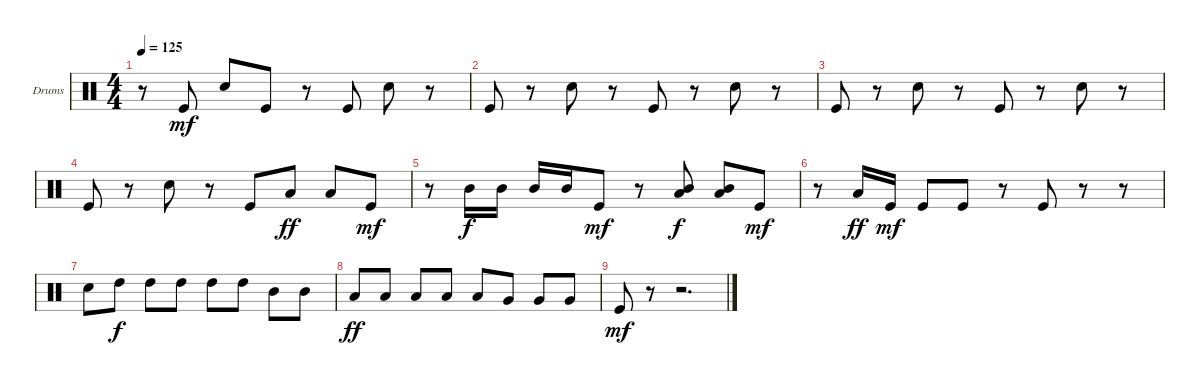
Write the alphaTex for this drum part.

\bracketExtendMode groupsimilarinstruments
\firstSystemTrackNameOrientation horizontal
\otherSystemsTrackNameOrientation horizontal
\track ("Nick Menza" "Drums") {instrument percussion}
\staff {score}
\articulation defaults
\ts (4 4)
\tempo 125
\clef neutral
\ks c
r.8{dy mf} "Kick (hit)".8 "Snare (hit) 2".8 "Kick (hit)".8 r.8 "Kick (hit)".8 "Snare (hit) 2".8 r.8 |
"Kick (hit)".8 r.8 "Snare (hit) 2".8 r.8 "Kick (hit)".8 r.8 "Snare (hit) 2".8 r.8 |
"Kick (hit)".8 r.8 "Snare (hit) 2".8 r.8 "Kick (hit)".8 r.8 "Snare (hit) 2".8 r.8 |
"Kick (hit)".8 r.8 "Snare (hit) 2".8 r.8 "Kick (hit)".8 "Low Tom (hit)".8{dy ff} "Low Tom (hit)".8 "Kick (hit)".8{dy mf} |
r.8 "Mid Tom (hit)".16{dy f} "Mid Tom (hit)".16 "Mid Tom (hit)".16 "Mid Tom (hit)".16 "Kick (hit)".8{dy mf} r.8 ("Mid Tom (hit)" "Low Tom (hit)").8{dy f} ("Mid Tom (hit)" "Low Tom (hit)").8 "Kick (hit)".8{dy mf} |
r.8 "Low Tom (hit)".16{dy ff} "Kick (hit)".16{dy mf} "Kick (hit)".8 "Kick (hit)".8 r.8 "Kick (hit)".8 r.8 r.8 |
"Snare (hit) 2".8 "High Tom (hit)".8{dy f} "High Tom (hit)".8 "High Tom (hit)".8 "High Tom (hit)".8 "High Tom (hit)".8 "Mid Tom (hit)".8 "Mid Tom (hit)".8 |
"Low Tom (hit)".8{dy ff} "Low Tom (hit)".8 "Low Tom (hit)".8 "Low Tom (hit)".8 "Low Tom (hit)".8 "Very Low Tom (hit)".8 "Very Low Tom (hit)".8 "Very Low Tom (hit)".8 |
"Kick (hit)".8{dy mf} r.8 r.2{d}
